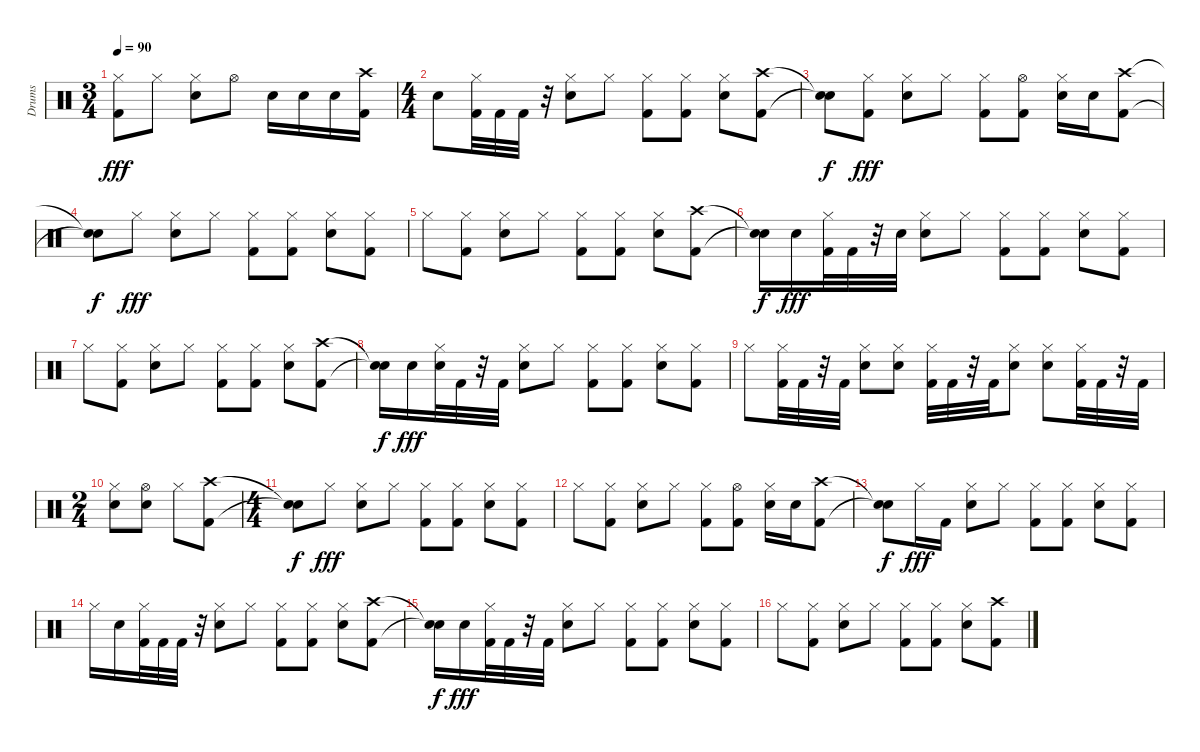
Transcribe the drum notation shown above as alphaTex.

\track ("Drums" "Drums") {instrument percussion}
\staff {score}
\articulation defaults
\ts (3 4)
\tempo 90
\clef neutral
\ks c
("Kick (hit) 2" "Hi-Hat (closed)").8{dy fff} "Hi-Hat (closed)".8 ("Snare (hit) 2" "Hi-Hat (closed)").8 "Hi-Hat (open)".8 "Snare (hit) 2".16 "Snare (hit) 2".16 "Electric Snare (hit)".16 ("Crash high (hit)" "Kick (hit) 2").16 |
\ts (4 4)
"Electric Snare (hit)".8 ("Kick (hit) 2" "Hi-Hat (closed)").32 "Kick (hit) 2".32 "Kick (hit) 2".32 r.32 ("Hi-Hat (closed)" "Snare (hit) 2").8 "Hi-Hat (closed)".8 ("Kick (hit) 2" "Hi-Hat (closed)").8 ("Kick (hit) 2" "Hi-Hat (closed)").8 ("Hi-Hat (closed)" "Electric Snare (hit)").8 ("Crash high (hit)" "Kick (hit) 2").8 |
("Snare (hit)"{t} "Snare (hit)"{t}).8{dy f} ("Hi-Hat (closed)" "Kick (hit) 2").8{dy fff} ("Electric Snare (hit)" "Hi-Hat (closed)").8 "Hi-Hat (closed)".8 ("Kick (hit) 2" "Hi-Hat (closed)").8 ("Kick (hit) 2" "Hi-Hat (open)").8 ("Hi-Hat (closed)" "Electric Snare (hit)").16 "Snare (hit) 2".16 ("Kick (hit) 2" "Crash high (hit)").8 |
("Snare (hit)"{t} "Snare (hit)"{t}).8{dy f} "Hi-Hat (closed)".8{dy fff} ("Electric Snare (hit)" "Hi-Hat (closed)").8 "Hi-Hat (closed)".8 ("Kick (hit) 2" "Hi-Hat (closed)").8 ("Kick (hit) 2" "Hi-Hat (closed)").8 ("Hi-Hat (closed)" "Electric Snare (hit)").8 ("Hi-Hat (closed)" "Kick (hit) 2").8 |
"Hi-Hat (closed)".8 ("Kick (hit) 2" "Hi-Hat (closed)").8 ("Electric Snare (hit)" "Hi-Hat (closed)").8 "Hi-Hat (closed)".8 ("Kick (hit) 2" "Hi-Hat (closed)").8 ("Kick (hit) 2" "Hi-Hat (closed)").8 ("Hi-Hat (closed)" "Electric Snare (hit)").8 ("Kick (hit) 2" "Crash high (hit)").8 |
("Snare (hit)"{t} "Snare (hit)"{t}).16{dy f} "Snare (hit) 2".16{dy fff} ("Kick (hit) 2" "Hi-Hat (closed)").32 "Kick (hit) 2".32 r.32 "Electric Snare (hit)".32 ("Electric Snare (hit)" "Hi-Hat (closed)").8 "Hi-Hat (closed)".8 ("Kick (hit) 2" "Hi-Hat (closed)").8 ("Kick (hit) 2" "Hi-Hat (closed)").8 ("Hi-Hat (closed)" "Electric Snare (hit)").8 ("Kick (hit) 2" "Hi-Hat (closed)").8 |
"Hi-Hat (closed)".8 ("Kick (hit) 2" "Hi-Hat (closed)").8 ("Snare (hit) 2" "Hi-Hat (closed)").8 "Hi-Hat (closed)".8 ("Kick (hit) 2" "Hi-Hat (closed)").8 ("Kick (hit) 2" "Hi-Hat (closed)").8 ("Hi-Hat (closed)" "Electric Snare (hit)").8 ("Crash high (hit)" "Kick (hit) 2").8 |
("Snare (hit)"{t} "Snare (hit)"{t}).16{dy f} "Snare (hit) 2".16{dy fff} ("Electric Snare (hit)" "Hi-Hat (closed)").32 "Kick (hit) 2".32 r.32 "Kick (hit) 2".32 ("Hi-Hat (closed)" "Electric Snare (hit)").8 "Hi-Hat (closed)".8 ("Kick (hit) 2" "Hi-Hat (closed)").8 ("Hi-Hat (closed)" "Kick (hit) 2").8 ("Electric Snare (hit)" "Hi-Hat (closed)").8 ("Hi-Hat (closed)" "Kick (hit) 2").8 |
"Hi-Hat (closed)".8 ("Kick (hit) 2" "Hi-Hat (closed)").32 "Kick (hit) 2".32 r.32 "Kick (hit) 2".32 ("Snare (hit) 2" "Hi-Hat (closed)").8 ("Electric Snare (hit)" "Hi-Hat (closed)").8 ("Hi-Hat (closed)" "Kick (hit) 2").32 "Kick (hit) 2".32 r.32 "Kick (hit) 2".32 ("Electric Snare (hit)" "Hi-Hat (closed)").8 ("Electric Snare (hit)" "Hi-Hat (closed)").8 ("Hi-Hat (closed)" "Kick (hit) 2").32 "Kick (hit) 2".32 r.32 "Kick (hit) 2".32 |
\ts (2 4)
("Electric Snare (hit)" "Hi-Hat (closed)").8 ("Hi-Hat (open)" "Snare (hit) 2").8 "Hi-Hat (closed)".8 ("Crash high (hit)" "Kick (hit) 2").8 |
\ts (4 4)
("Snare (hit)"{t} "Snare (hit)"{t}).8{dy f} "Hi-Hat (closed)".8{dy fff} ("Hi-Hat (closed)" "Snare (hit) 2").8 "Hi-Hat (closed)".8 ("Kick (hit) 2" "Hi-Hat (closed)").8 ("Kick (hit) 2" "Hi-Hat (closed)").8 ("Hi-Hat (closed)" "Electric Snare (hit)").8 ("Hi-Hat (closed)" "Kick (hit) 2").8 |
"Hi-Hat (closed)".8 ("Hi-Hat (closed)" "Kick (hit) 2").8 ("Electric Snare (hit)" "Hi-Hat (closed)").8 "Hi-Hat (closed)".8 ("Kick (hit) 2" "Hi-Hat (closed)").8 ("Kick (hit) 2" "Hi-Hat (open)").8 ("Hi-Hat (closed)" "Electric Snare (hit)").16 "Snare (hit) 2".16 ("Kick (hit) 2" "Crash high (hit)").8 |
("Snare (hit)"{t} "Snare (hit)"{t}).8{dy f} "Hi-Hat (closed)".16{dy fff} "Kick (hit) 2".16 ("Electric Snare (hit)" "Hi-Hat (closed)").8 "Hi-Hat (closed)".8 ("Kick (hit) 2" "Hi-Hat (closed)").8 ("Kick (hit) 2" "Hi-Hat (closed)").8 ("Hi-Hat (closed)" "Electric Snare (hit)").8 ("Hi-Hat (closed)" "Kick (hit) 2").8 |
"Hi-Hat (closed)".16 "Electric Snare (hit)".16 ("Kick (hit) 2" "Hi-Hat (closed)").32 "Kick (hit) 2".32 "Kick (hit) 2".32 r.32 ("Electric Snare (hit)" "Hi-Hat (closed)").8 "Hi-Hat (closed)".8 ("Kick (hit) 2" "Hi-Hat (closed)").8 ("Kick (hit) 2" "Hi-Hat (closed)").8 ("Hi-Hat (closed)" "Electric Snare (hit)").8 ("Kick (hit) 2" "Crash high (hit)").8 |
("Snare (hit)"{t} "Snare (hit)"{t}).16{dy f} "Snare (hit) 2".16{dy fff} ("Kick (hit) 2" "Hi-Hat (closed)").32 "Kick (hit) 2".32 r.32 "Kick (hit) 2".32 ("Electric Snare (hit)" "Hi-Hat (closed)").8 "Hi-Hat (closed)".8 ("Kick (hit) 2" "Hi-Hat (closed)").8 ("Kick (hit) 2" "Hi-Hat (closed)").8 ("Hi-Hat (closed)" "Electric Snare (hit)").8 ("Kick (hit) 2" "Hi-Hat (closed)").8 |
"Hi-Hat (closed)".8 ("Kick (hit) 2" "Hi-Hat (closed)").8 ("Snare (hit) 2" "Hi-Hat (closed)").8 "Hi-Hat (closed)".8 ("Kick (hit) 2" "Hi-Hat (closed)").8 ("Kick (hit) 2" "Hi-Hat (closed)").8 ("Hi-Hat (closed)" "Electric Snare (hit)").8 ("Crash high (hit)" "Kick (hit) 2").8
